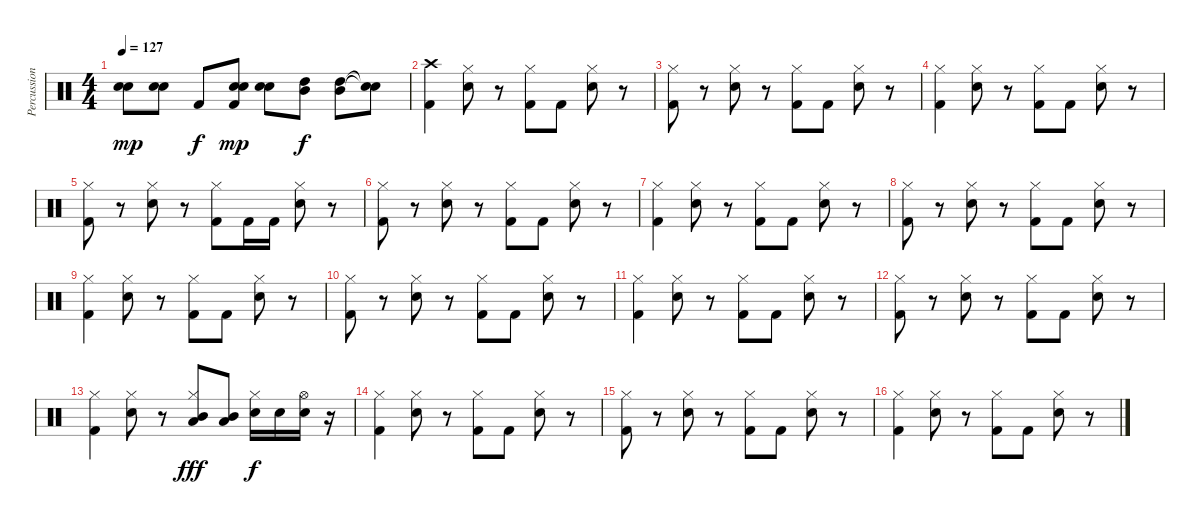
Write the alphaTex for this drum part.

\track ("Percussion" "Percussion") {instrument percussion}
\staff {score}
\articulation defaults
\ts (4 4)
\tempo 127
\clef neutral
\ks c
("Electric Snare (hit)" "Snare (hit) 2").8{dy mp} ("Electric Snare (hit)" "Snare (hit) 2").8 "Kick (hit) 2".8{dy f} ("Electric Snare (hit)" "Snare (hit) 2" "Kick (hit) 2").8{dy mp} ("Electric Snare (hit)" "Snare (hit) 2").8 ("High Tom (hit)" "Mid Tom (hit)").8{dy f} ("High Tom (hit)" "Mid Tom (hit)").8 ("Snare (hit)"{t} "Snare (hit)"{t}).8 |
("Crash high (hit)" "Kick (hit) 2").4 ("Hi-Hat (closed)" "Snare (hit) 2").8 r.8 ("Hi-Hat (closed)" "Kick (hit) 2").8 "Kick (hit) 2".8 ("Hi-Hat (closed)" "Snare (hit) 2").8 r.8 |
("Hi-Hat (closed)" "Kick (hit) 2").8 r.8 ("Hi-Hat (closed)" "Snare (hit) 2").8 r.8 ("Hi-Hat (closed)" "Kick (hit) 2").8 "Kick (hit) 2".8 ("Hi-Hat (closed)" "Snare (hit) 2").8 r.8 |
("Hi-Hat (closed)" "Kick (hit) 2").4 ("Hi-Hat (closed)" "Snare (hit) 2").8 r.8 ("Hi-Hat (closed)" "Kick (hit) 2").8 "Kick (hit) 2".8 ("Hi-Hat (closed)" "Snare (hit) 2").8 r.8 |
("Hi-Hat (closed)" "Kick (hit) 2").8 r.8 ("Hi-Hat (closed)" "Snare (hit) 2").8 r.8 ("Hi-Hat (closed)" "Kick (hit) 2").8 "Kick (hit) 2".16 "Kick (hit) 2".16 ("Hi-Hat (closed)" "Snare (hit) 2").8 r.8 |
("Hi-Hat (closed)" "Kick (hit) 2").8 r.8 ("Hi-Hat (closed)" "Snare (hit) 2").8 r.8 ("Hi-Hat (closed)" "Kick (hit) 2").8 "Kick (hit) 2".8 ("Hi-Hat (closed)" "Snare (hit) 2").8 r.8 |
("Hi-Hat (closed)" "Kick (hit) 2").4 ("Hi-Hat (closed)" "Snare (hit) 2").8 r.8 ("Hi-Hat (closed)" "Kick (hit) 2").8 "Kick (hit) 2".8 ("Hi-Hat (closed)" "Snare (hit) 2").8 r.8 |
("Hi-Hat (closed)" "Kick (hit) 2").8 r.8 ("Hi-Hat (closed)" "Snare (hit) 2").8 r.8 ("Hi-Hat (closed)" "Kick (hit) 2").8 "Kick (hit) 2".8 ("Hi-Hat (closed)" "Snare (hit) 2").8 r.8 |
("Hi-Hat (closed)" "Kick (hit) 2").4 ("Hi-Hat (closed)" "Snare (hit) 2").8 r.8 ("Hi-Hat (closed)" "Kick (hit) 2").8 "Kick (hit) 2".8 ("Hi-Hat (closed)" "Snare (hit) 2").8 r.8 |
("Hi-Hat (closed)" "Kick (hit) 2").8 r.8 ("Hi-Hat (closed)" "Snare (hit) 2").8 r.8 ("Hi-Hat (closed)" "Kick (hit) 2").8 "Kick (hit) 2".8 ("Hi-Hat (closed)" "Snare (hit) 2").8 r.8 |
("Hi-Hat (closed)" "Kick (hit) 2").4 ("Hi-Hat (closed)" "Snare (hit) 2").8 r.8 ("Hi-Hat (closed)" "Kick (hit) 2").8 "Kick (hit) 2".8 ("Hi-Hat (closed)" "Snare (hit) 2").8 r.8 |
("Hi-Hat (closed)" "Kick (hit) 2").8 r.8 ("Hi-Hat (closed)" "Snare (hit) 2").8 r.8 ("Hi-Hat (closed)" "Kick (hit) 2").8 "Kick (hit) 2".8 ("Hi-Hat (closed)" "Snare (hit) 2").8 r.8 |
("Hi-Hat (closed)" "Kick (hit) 2").4 ("Hi-Hat (closed)" "Snare (hit) 2").8 r.8 ("Hi-Hat (closed)" "Mid Tom (hit)" "Low Tom (hit)").8{dy fff} ("Mid Tom (hit)" "Low Tom (hit)").8 ("Hi-Hat (closed)" "Snare (hit) 2").16{dy f} "Snare (hit) 2".16 ("Hi-Hat (open)" "Snare (hit) 2").16 r.16 |
("Hi-Hat (closed)" "Kick (hit) 2").4 ("Hi-Hat (closed)" "Snare (hit) 2").8 r.8 ("Hi-Hat (closed)" "Kick (hit) 2").8 "Kick (hit) 2".8 ("Hi-Hat (closed)" "Snare (hit) 2").8 r.8 |
("Hi-Hat (closed)" "Kick (hit) 2").8 r.8 ("Hi-Hat (closed)" "Snare (hit) 2").8 r.8 ("Hi-Hat (closed)" "Kick (hit) 2").8 "Kick (hit) 2".8 ("Hi-Hat (closed)" "Snare (hit) 2").8 r.8 |
("Hi-Hat (closed)" "Kick (hit) 2").4 ("Hi-Hat (closed)" "Snare (hit) 2").8 r.8 ("Hi-Hat (closed)" "Kick (hit) 2").8 "Kick (hit) 2".8 ("Hi-Hat (closed)" "Snare (hit) 2").8 r.8
